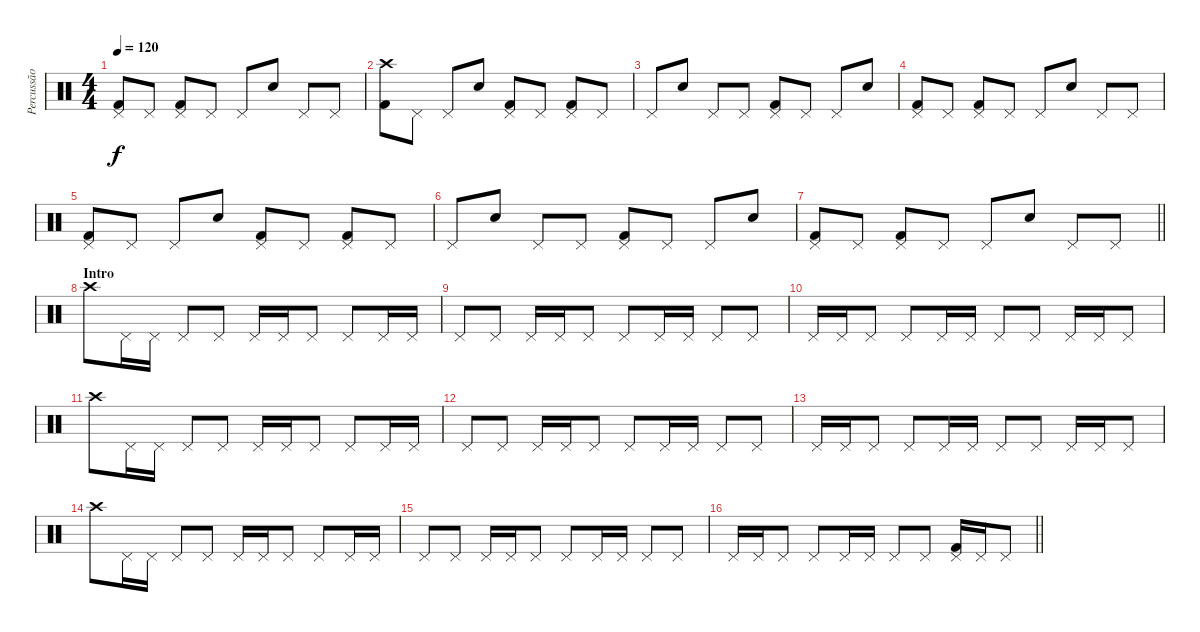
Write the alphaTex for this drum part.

\track ("Percussão" "Percussão") {instrument percussion}
\staff {score}
\articulation defaults
\ts (4 4)
\tempo 120
\clef neutral
\ks c
("Pedal Hi-Hat (hit)" "Kick (hit) 2").8{dy f} "Pedal Hi-Hat (hit)".8 ("Pedal Hi-Hat (hit)" "Kick (hit) 2").8 "Pedal Hi-Hat (hit)".8 "Pedal Hi-Hat (hit)".8 "Snare (hit) 2".8 "Pedal Hi-Hat (hit)".8 "Pedal Hi-Hat (hit)".8 |
("Crash high (hit)" "Kick (hit) 2").8 "Pedal Hi-Hat (hit)".8 "Pedal Hi-Hat (hit)".8 "Snare (hit) 2".8 ("Pedal Hi-Hat (hit)" "Kick (hit) 2").8 "Pedal Hi-Hat (hit)".8 ("Pedal Hi-Hat (hit)" "Kick (hit) 2").8 "Pedal Hi-Hat (hit)".8 |
"Pedal Hi-Hat (hit)".8 "Snare (hit) 2".8 "Pedal Hi-Hat (hit)".8 "Pedal Hi-Hat (hit)".8 ("Pedal Hi-Hat (hit)" "Kick (hit) 2").8 "Pedal Hi-Hat (hit)".8 "Pedal Hi-Hat (hit)".8 "Snare (hit) 2".8 |
("Pedal Hi-Hat (hit)" "Kick (hit) 2").8 "Pedal Hi-Hat (hit)".8 ("Pedal Hi-Hat (hit)" "Kick (hit) 2").8 "Pedal Hi-Hat (hit)".8 "Pedal Hi-Hat (hit)".8 "Snare (hit) 2".8 "Pedal Hi-Hat (hit)".8 "Pedal Hi-Hat (hit)".8 |
("Pedal Hi-Hat (hit)" "Kick (hit) 2").8 "Pedal Hi-Hat (hit)".8 "Pedal Hi-Hat (hit)".8 "Snare (hit) 2".8 ("Pedal Hi-Hat (hit)" "Kick (hit) 2").8 "Pedal Hi-Hat (hit)".8 ("Pedal Hi-Hat (hit)" "Kick (hit) 2").8 "Pedal Hi-Hat (hit)".8 |
"Pedal Hi-Hat (hit)".8 "Snare (hit) 2".8 "Pedal Hi-Hat (hit)".8 "Pedal Hi-Hat (hit)".8 ("Pedal Hi-Hat (hit)" "Kick (hit) 2").8 "Pedal Hi-Hat (hit)".8 "Pedal Hi-Hat (hit)".8 "Snare (hit) 2".8 |
\barLineRight lightlight
("Pedal Hi-Hat (hit)" "Kick (hit) 2").8 "Pedal Hi-Hat (hit)".8 ("Pedal Hi-Hat (hit)" "Kick (hit) 2").8 "Pedal Hi-Hat (hit)".8 "Pedal Hi-Hat (hit)".8 "Snare (hit) 2".8 "Pedal Hi-Hat (hit)".8 "Pedal Hi-Hat (hit)".8 |
\section ("" "Intro")
"Crash high (hit)".8 "Pedal Hi-Hat (hit)".16 "Pedal Hi-Hat (hit)".16 "Pedal Hi-Hat (hit)".8 "Pedal Hi-Hat (hit)".8 "Pedal Hi-Hat (hit)".16 "Pedal Hi-Hat (hit)".16 "Pedal Hi-Hat (hit)".8 "Pedal Hi-Hat (hit)".8 "Pedal Hi-Hat (hit)".16 "Pedal Hi-Hat (hit)".16 |
"Pedal Hi-Hat (hit)".8 "Pedal Hi-Hat (hit)".8 "Pedal Hi-Hat (hit)".16 "Pedal Hi-Hat (hit)".16 "Pedal Hi-Hat (hit)".8 "Pedal Hi-Hat (hit)".8 "Pedal Hi-Hat (hit)".16 "Pedal Hi-Hat (hit)".16 "Pedal Hi-Hat (hit)".8 "Pedal Hi-Hat (hit)".8 |
"Pedal Hi-Hat (hit)".16 "Pedal Hi-Hat (hit)".16 "Pedal Hi-Hat (hit)".8 "Pedal Hi-Hat (hit)".8 "Pedal Hi-Hat (hit)".16 "Pedal Hi-Hat (hit)".16 "Pedal Hi-Hat (hit)".8 "Pedal Hi-Hat (hit)".8 "Pedal Hi-Hat (hit)".16 "Pedal Hi-Hat (hit)".16 "Pedal Hi-Hat (hit)".8 |
"Crash high (hit)".8 "Pedal Hi-Hat (hit)".16 "Pedal Hi-Hat (hit)".16 "Pedal Hi-Hat (hit)".8 "Pedal Hi-Hat (hit)".8 "Pedal Hi-Hat (hit)".16 "Pedal Hi-Hat (hit)".16 "Pedal Hi-Hat (hit)".8 "Pedal Hi-Hat (hit)".8 "Pedal Hi-Hat (hit)".16 "Pedal Hi-Hat (hit)".16 |
"Pedal Hi-Hat (hit)".8 "Pedal Hi-Hat (hit)".8 "Pedal Hi-Hat (hit)".16 "Pedal Hi-Hat (hit)".16 "Pedal Hi-Hat (hit)".8 "Pedal Hi-Hat (hit)".8 "Pedal Hi-Hat (hit)".16 "Pedal Hi-Hat (hit)".16 "Pedal Hi-Hat (hit)".8 "Pedal Hi-Hat (hit)".8 |
"Pedal Hi-Hat (hit)".16 "Pedal Hi-Hat (hit)".16 "Pedal Hi-Hat (hit)".8 "Pedal Hi-Hat (hit)".8 "Pedal Hi-Hat (hit)".16 "Pedal Hi-Hat (hit)".16 "Pedal Hi-Hat (hit)".8 "Pedal Hi-Hat (hit)".8 "Pedal Hi-Hat (hit)".16 "Pedal Hi-Hat (hit)".16 "Pedal Hi-Hat (hit)".8 |
"Crash high (hit)".8 "Pedal Hi-Hat (hit)".16 "Pedal Hi-Hat (hit)".16 "Pedal Hi-Hat (hit)".8 "Pedal Hi-Hat (hit)".8 "Pedal Hi-Hat (hit)".16 "Pedal Hi-Hat (hit)".16 "Pedal Hi-Hat (hit)".8 "Pedal Hi-Hat (hit)".8 "Pedal Hi-Hat (hit)".16 "Pedal Hi-Hat (hit)".16 |
"Pedal Hi-Hat (hit)".8 "Pedal Hi-Hat (hit)".8 "Pedal Hi-Hat (hit)".16 "Pedal Hi-Hat (hit)".16 "Pedal Hi-Hat (hit)".8 "Pedal Hi-Hat (hit)".8 "Pedal Hi-Hat (hit)".16 "Pedal Hi-Hat (hit)".16 "Pedal Hi-Hat (hit)".8 "Pedal Hi-Hat (hit)".8 |
\barLineRight lightlight "Pedal Hi-Hat (hit)".16 "Pedal Hi-Hat (hit)".16 "Pedal Hi-Hat (hit)".8 "Pedal Hi-Hat (hit)".8 "Pedal Hi-Hat (hit)".16 "Pedal Hi-Hat (hit)".16 "Pedal Hi-Hat (hit)".8 "Pedal Hi-Hat (hit)".8
("Pedal Hi-Hat (hit)" "Kick (hit) 2").16 "Pedal Hi-Hat (hit)".16 "Pedal Hi-Hat (hit)".8
